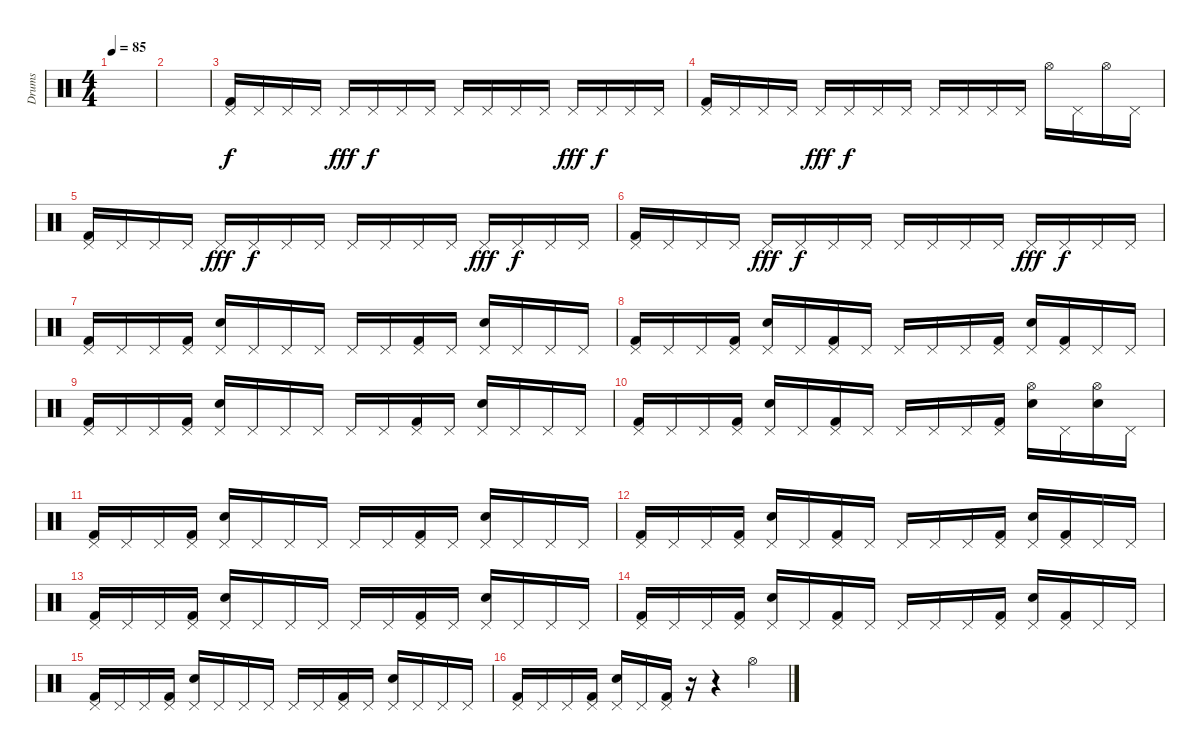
\track ("Drums" "Drums") {instrument percussion}
\staff {score}
\articulation defaults
\ts (4 4)
\tempo 85
\clef neutral
\ks c
|
|
("Pedal Hi-Hat (hit)" "Kick (hit) 2").16 "Pedal Hi-Hat (hit)".16 "Pedal Hi-Hat (hit)".16 "Pedal Hi-Hat (hit)".16 "Pedal Hi-Hat (hit)".16{dy fff} "Pedal Hi-Hat (hit)".16{dy f} "Pedal Hi-Hat (hit)".16 "Pedal Hi-Hat (hit)".16 "Pedal Hi-Hat (hit)".16 "Pedal Hi-Hat (hit)".16 "Pedal Hi-Hat (hit)".16 "Pedal Hi-Hat (hit)".16 "Pedal Hi-Hat (hit)".16{dy fff} "Pedal Hi-Hat (hit)".16{dy f} "Pedal Hi-Hat (hit)".16 "Pedal Hi-Hat (hit)".16 |
("Pedal Hi-Hat (hit)" "Kick (hit) 2").16 "Pedal Hi-Hat (hit)".16 "Pedal Hi-Hat (hit)".16 "Pedal Hi-Hat (hit)".16 "Pedal Hi-Hat (hit)".16{dy fff} "Pedal Hi-Hat (hit)".16{dy f} "Pedal Hi-Hat (hit)".16 "Pedal Hi-Hat (hit)".16 "Pedal Hi-Hat (hit)".16 "Pedal Hi-Hat (hit)".16 "Pedal Hi-Hat (hit)".16 "Pedal Hi-Hat (hit)".16 "Hi-Hat (open)".16 "Pedal Hi-Hat (hit)".16 "Hi-Hat (open)".16 "Pedal Hi-Hat (hit)".16 |
("Pedal Hi-Hat (hit)" "Kick (hit) 2").16 "Pedal Hi-Hat (hit)".16 "Pedal Hi-Hat (hit)".16 "Pedal Hi-Hat (hit)".16 "Pedal Hi-Hat (hit)".16{dy fff} "Pedal Hi-Hat (hit)".16{dy f} "Pedal Hi-Hat (hit)".16 "Pedal Hi-Hat (hit)".16 "Pedal Hi-Hat (hit)".16 "Pedal Hi-Hat (hit)".16 "Pedal Hi-Hat (hit)".16 "Pedal Hi-Hat (hit)".16 "Pedal Hi-Hat (hit)".16{dy fff} "Pedal Hi-Hat (hit)".16{dy f} "Pedal Hi-Hat (hit)".16 "Pedal Hi-Hat (hit)".16 |
("Pedal Hi-Hat (hit)" "Kick (hit) 2").16 "Pedal Hi-Hat (hit)".16 "Pedal Hi-Hat (hit)".16 "Pedal Hi-Hat (hit)".16 "Pedal Hi-Hat (hit)".16{dy fff} "Pedal Hi-Hat (hit)".16{dy f} "Pedal Hi-Hat (hit)".16 "Pedal Hi-Hat (hit)".16 "Pedal Hi-Hat (hit)".16 "Pedal Hi-Hat (hit)".16 "Pedal Hi-Hat (hit)".16 "Pedal Hi-Hat (hit)".16 "Pedal Hi-Hat (hit)".16{dy fff} "Pedal Hi-Hat (hit)".16{dy f} "Pedal Hi-Hat (hit)".16 "Pedal Hi-Hat (hit)".16 |
("Pedal Hi-Hat (hit)" "Kick (hit) 2").16 "Pedal Hi-Hat (hit)".16 "Pedal Hi-Hat (hit)".16 ("Pedal Hi-Hat (hit)" "Kick (hit) 2").16 ("Pedal Hi-Hat (hit)" "Electric Snare (hit)").16 "Pedal Hi-Hat (hit)".16 "Pedal Hi-Hat (hit)".16 "Pedal Hi-Hat (hit)".16 "Pedal Hi-Hat (hit)".16 "Pedal Hi-Hat (hit)".16 ("Pedal Hi-Hat (hit)" "Kick (hit) 2").16 "Pedal Hi-Hat (hit)".16 ("Pedal Hi-Hat (hit)" "Electric Snare (hit)").16 "Pedal Hi-Hat (hit)".16 "Pedal Hi-Hat (hit)".16 "Pedal Hi-Hat (hit)".16 |
("Pedal Hi-Hat (hit)" "Kick (hit) 2").16 "Pedal Hi-Hat (hit)".16 "Pedal Hi-Hat (hit)".16 ("Pedal Hi-Hat (hit)" "Kick (hit) 2").16 ("Pedal Hi-Hat (hit)" "Electric Snare (hit)").16 "Pedal Hi-Hat (hit)".16 ("Pedal Hi-Hat (hit)" "Kick (hit) 2").16 "Pedal Hi-Hat (hit)".16 "Pedal Hi-Hat (hit)".16 "Pedal Hi-Hat (hit)".16 "Pedal Hi-Hat (hit)".16 ("Pedal Hi-Hat (hit)" "Kick (hit) 2").16 ("Pedal Hi-Hat (hit)" "Electric Snare (hit)").16 ("Pedal Hi-Hat (hit)" "Kick (hit) 2").16 "Pedal Hi-Hat (hit)".16 "Pedal Hi-Hat (hit)".16 |
("Pedal Hi-Hat (hit)" "Kick (hit) 2").16 "Pedal Hi-Hat (hit)".16 "Pedal Hi-Hat (hit)".16 ("Pedal Hi-Hat (hit)" "Kick (hit) 2").16 ("Pedal Hi-Hat (hit)" "Electric Snare (hit)").16 "Pedal Hi-Hat (hit)".16 "Pedal Hi-Hat (hit)".16 "Pedal Hi-Hat (hit)".16 "Pedal Hi-Hat (hit)".16 "Pedal Hi-Hat (hit)".16 ("Pedal Hi-Hat (hit)" "Kick (hit) 2").16 "Pedal Hi-Hat (hit)".16 ("Pedal Hi-Hat (hit)" "Electric Snare (hit)").16 "Pedal Hi-Hat (hit)".16 "Pedal Hi-Hat (hit)".16 "Pedal Hi-Hat (hit)".16 |
("Pedal Hi-Hat (hit)" "Kick (hit) 2").16 "Pedal Hi-Hat (hit)".16 "Pedal Hi-Hat (hit)".16 ("Pedal Hi-Hat (hit)" "Kick (hit) 2").16 ("Pedal Hi-Hat (hit)" "Electric Snare (hit)").16 "Pedal Hi-Hat (hit)".16 ("Pedal Hi-Hat (hit)" "Kick (hit) 2").16 "Pedal Hi-Hat (hit)".16 "Pedal Hi-Hat (hit)".16 "Pedal Hi-Hat (hit)".16 "Pedal Hi-Hat (hit)".16 ("Pedal Hi-Hat (hit)" "Kick (hit) 2").16 ("Hi-Hat (open)" "Electric Snare (hit)").16 "Pedal Hi-Hat (hit)".16 ("Hi-Hat (open)" "Electric Snare (hit)").16 "Pedal Hi-Hat (hit)".16 |
("Pedal Hi-Hat (hit)" "Kick (hit) 2").16 "Pedal Hi-Hat (hit)".16 "Pedal Hi-Hat (hit)".16 ("Pedal Hi-Hat (hit)" "Kick (hit) 2").16 ("Pedal Hi-Hat (hit)" "Electric Snare (hit)").16 "Pedal Hi-Hat (hit)".16 "Pedal Hi-Hat (hit)".16 "Pedal Hi-Hat (hit)".16 "Pedal Hi-Hat (hit)".16 "Pedal Hi-Hat (hit)".16 ("Pedal Hi-Hat (hit)" "Kick (hit) 2").16 "Pedal Hi-Hat (hit)".16 ("Pedal Hi-Hat (hit)" "Electric Snare (hit)").16 "Pedal Hi-Hat (hit)".16 "Pedal Hi-Hat (hit)".16 "Pedal Hi-Hat (hit)".16 |
("Pedal Hi-Hat (hit)" "Kick (hit) 2").16 "Pedal Hi-Hat (hit)".16 "Pedal Hi-Hat (hit)".16 ("Pedal Hi-Hat (hit)" "Kick (hit) 2").16 ("Pedal Hi-Hat (hit)" "Electric Snare (hit)").16 "Pedal Hi-Hat (hit)".16 ("Pedal Hi-Hat (hit)" "Kick (hit) 2").16 "Pedal Hi-Hat (hit)".16 "Pedal Hi-Hat (hit)".16 "Pedal Hi-Hat (hit)".16 "Pedal Hi-Hat (hit)".16 ("Pedal Hi-Hat (hit)" "Kick (hit) 2").16 ("Pedal Hi-Hat (hit)" "Electric Snare (hit)").16 ("Pedal Hi-Hat (hit)" "Kick (hit) 2").16 "Pedal Hi-Hat (hit)".16 "Pedal Hi-Hat (hit)".16 |
("Pedal Hi-Hat (hit)" "Kick (hit) 2").16 "Pedal Hi-Hat (hit)".16 "Pedal Hi-Hat (hit)".16 ("Pedal Hi-Hat (hit)" "Kick (hit) 2").16 ("Pedal Hi-Hat (hit)" "Electric Snare (hit)").16 "Pedal Hi-Hat (hit)".16 "Pedal Hi-Hat (hit)".16 "Pedal Hi-Hat (hit)".16 "Pedal Hi-Hat (hit)".16 "Pedal Hi-Hat (hit)".16 ("Pedal Hi-Hat (hit)" "Kick (hit) 2").16 "Pedal Hi-Hat (hit)".16 ("Pedal Hi-Hat (hit)" "Electric Snare (hit)").16 "Pedal Hi-Hat (hit)".16 "Pedal Hi-Hat (hit)".16 "Pedal Hi-Hat (hit)".16 |
("Pedal Hi-Hat (hit)" "Kick (hit) 2").16 "Pedal Hi-Hat (hit)".16 "Pedal Hi-Hat (hit)".16 ("Pedal Hi-Hat (hit)" "Kick (hit) 2").16 ("Pedal Hi-Hat (hit)" "Electric Snare (hit)").16 "Pedal Hi-Hat (hit)".16 ("Pedal Hi-Hat (hit)" "Kick (hit) 2").16 "Pedal Hi-Hat (hit)".16 "Pedal Hi-Hat (hit)".16 "Pedal Hi-Hat (hit)".16 "Pedal Hi-Hat (hit)".16 ("Pedal Hi-Hat (hit)" "Kick (hit) 2").16 ("Pedal Hi-Hat (hit)" "Electric Snare (hit)").16 ("Pedal Hi-Hat (hit)" "Kick (hit) 2").16 "Pedal Hi-Hat (hit)".16 "Pedal Hi-Hat (hit)".16 |
("Pedal Hi-Hat (hit)" "Kick (hit) 2").16 "Pedal Hi-Hat (hit)".16 "Pedal Hi-Hat (hit)".16 ("Pedal Hi-Hat (hit)" "Kick (hit) 2").16 ("Pedal Hi-Hat (hit)" "Electric Snare (hit)").16 "Pedal Hi-Hat (hit)".16 "Pedal Hi-Hat (hit)".16 "Pedal Hi-Hat (hit)".16 "Pedal Hi-Hat (hit)".16 "Pedal Hi-Hat (hit)".16 ("Pedal Hi-Hat (hit)" "Kick (hit) 2").16 "Pedal Hi-Hat (hit)".16 ("Pedal Hi-Hat (hit)" "Electric Snare (hit)").16 "Pedal Hi-Hat (hit)".16 "Pedal Hi-Hat (hit)".16 "Pedal Hi-Hat (hit)".16 |
("Pedal Hi-Hat (hit)" "Kick (hit) 2").16 "Pedal Hi-Hat (hit)".16 "Pedal Hi-Hat (hit)".16 ("Pedal Hi-Hat (hit)" "Kick (hit) 2").16 ("Pedal Hi-Hat (hit)" "Electric Snare (hit)").16 "Pedal Hi-Hat (hit)".16 ("Pedal Hi-Hat (hit)" "Kick (hit) 2").16 r.16 r.4 "Hi-Hat (open)".4
